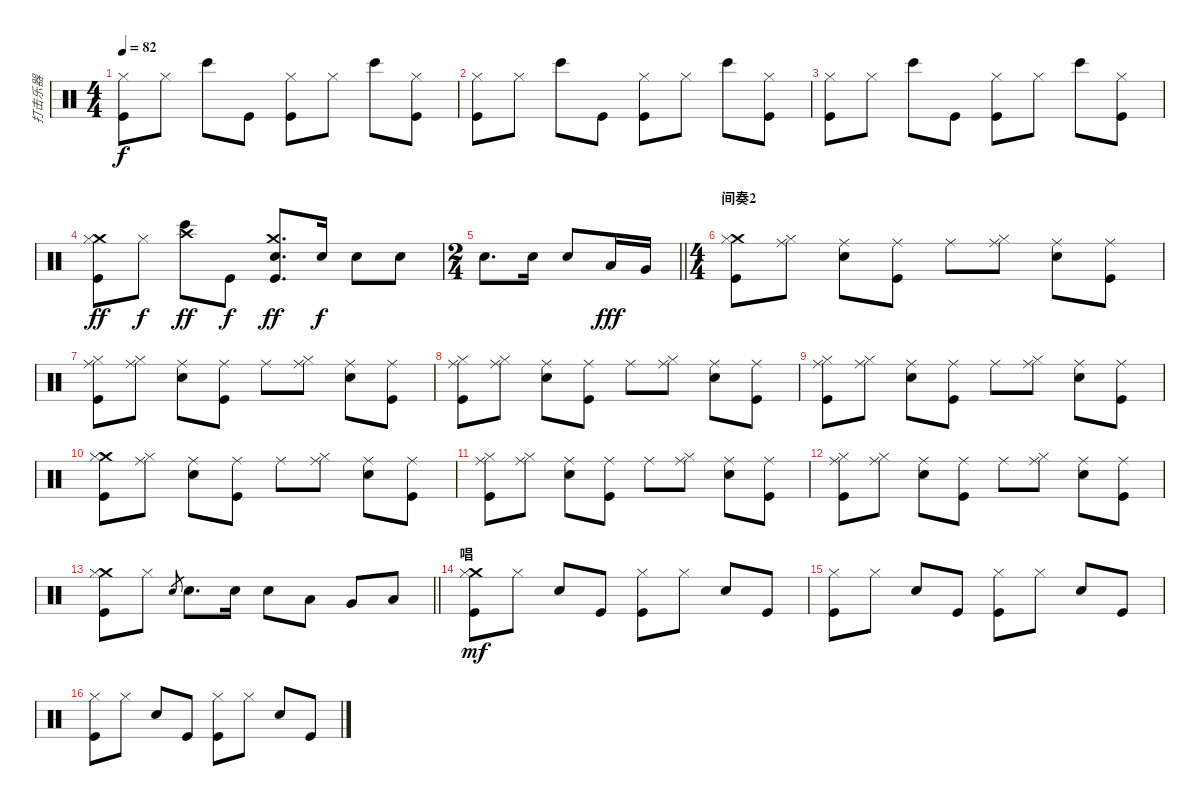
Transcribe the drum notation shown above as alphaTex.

\track ("打击乐器" "打击乐器") {instrument percussion}
\staff {score}
\articulation defaults
\ts (4 4)
\tempo 82
\clef neutral
\ks c
("Hi-Hat (closed)" "Kick (hit)").8{dy f} "Hi-Hat (closed)".8 "Bongo High (hit)".8 "Kick (hit)".8 ("Hi-Hat (closed)" "Kick (hit)").8 "Hi-Hat (closed)".8 "Bongo High (hit)".8 ("Hi-Hat (closed)" "Kick (hit)").8 |
("Hi-Hat (closed)" "Kick (hit)").8 "Hi-Hat (closed)".8 "Bongo High (hit)".8 "Kick (hit)".8 ("Hi-Hat (closed)" "Kick (hit)").8 "Hi-Hat (closed)".8 "Bongo High (hit)".8 ("Hi-Hat (closed)" "Kick (hit)").8 |
("Hi-Hat (closed)" "Kick (hit)").8 "Hi-Hat (closed)".8 "Bongo High (hit)".8 "Kick (hit)".8 ("Hi-Hat (closed)" "Kick (hit)").8 "Hi-Hat (closed)".8 "Bongo High (hit)".8 ("Hi-Hat (closed)" "Kick (hit)").8 |
("Crash medium (hit)" "Hi-Hat (closed)" "Kick (hit)").8{dy ff} "Hi-Hat (closed)".8{dy f} ("Crash high (hit)" "Bongo High (hit)").8{dy ff} "Kick (hit)".8{dy f} ("Crash medium (hit)" "Electric Snare (hit)" "Kick (hit)").8{d dy ff} "Electric Snare (hit)".16{dy f} "Electric Snare (hit)".8 "Electric Snare (hit)".8 |
\ts (2 4)
\barLineRight lightlight "Electric Snare (hit)".8{d} "Electric Snare (hit)".16 "Electric Snare (hit)".8 "Low Tom (hit)".16{dy fff} "Very Low Tom (hit)".16
|
\ts (4 4)
\section ("" "间奏2")
("Crash medium (hit)" "Hi-Hat (closed)" "Kick (hit)").8 ("Ride (middle)" "Hi-Hat (closed)").8 ("Ride (middle)" "Electric Snare (hit)").8 ("Ride (middle)" "Kick (hit)").8 "Ride (middle)".8 ("Ride (middle)" "Hi-Hat (closed)").8 ("Ride (middle)" "Electric Snare (hit)").8 ("Ride (middle)" "Kick (hit)").8 |
("Ride (middle)" "Hi-Hat (closed)" "Kick (hit)").8 ("Ride (middle)" "Hi-Hat (closed)").8 ("Ride (middle)" "Electric Snare (hit)").8 ("Ride (middle)" "Kick (hit)").8 "Ride (middle)".8 ("Ride (middle)" "Hi-Hat (closed)").8 ("Ride (middle)" "Electric Snare (hit)").8 ("Ride (middle)" "Kick (hit)").8 |
("Ride (middle)" "Hi-Hat (closed)" "Kick (hit)").8 ("Ride (middle)" "Hi-Hat (closed)").8 ("Ride (middle)" "Electric Snare (hit)").8 ("Ride (middle)" "Kick (hit)").8 "Ride (middle)".8 ("Ride (middle)" "Hi-Hat (closed)").8 ("Ride (middle)" "Electric Snare (hit)").8 ("Ride (middle)" "Kick (hit)").8 |
("Ride (middle)" "Hi-Hat (closed)" "Kick (hit)").8 ("Ride (middle)" "Hi-Hat (closed)").8 ("Ride (middle)" "Electric Snare (hit)").8 ("Ride (middle)" "Kick (hit)").8 "Ride (middle)".8 ("Ride (middle)" "Hi-Hat (closed)").8 ("Ride (middle)" "Electric Snare (hit)").8 ("Ride (middle)" "Kick (hit)").8 |
("Crash medium (hit)" "Hi-Hat (closed)" "Kick (hit)").8 ("Ride (middle)" "Hi-Hat (closed)").8 ("Ride (middle)" "Electric Snare (hit)").8 ("Ride (middle)" "Kick (hit)").8 "Ride (middle)".8 ("Ride (middle)" "Hi-Hat (closed)").8 ("Ride (middle)" "Electric Snare (hit)").8 ("Ride (middle)" "Kick (hit)").8 |
("Ride (middle)" "Hi-Hat (closed)" "Kick (hit)").8 ("Ride (middle)" "Hi-Hat (closed)").8 ("Ride (middle)" "Electric Snare (hit)").8 ("Ride (middle)" "Kick (hit)").8 "Ride (middle)".8 ("Ride (middle)" "Hi-Hat (closed)").8 ("Ride (middle)" "Electric Snare (hit)").8 ("Ride (middle)" "Kick (hit)").8 |
("Ride (middle)" "Hi-Hat (closed)" "Kick (hit)").8 ("Ride (middle)" "Hi-Hat (closed)").8 ("Ride (middle)" "Electric Snare (hit)").8 ("Ride (middle)" "Kick (hit)").8 "Ride (middle)".8 ("Ride (middle)" "Hi-Hat (closed)").8 ("Ride (middle)" "Electric Snare (hit)").8 ("Ride (middle)" "Kick (hit)").8 |
\barLineRight lightlight
("Crash medium (hit)" "Hi-Hat (closed)" "Kick (hit)").8 "Hi-Hat (closed)".8 "Electric Snare (hit)".8{gr} "Electric Snare (hit)".8{d} "Electric Snare (hit)".16 "Electric Snare (hit)".8 "Low Tom (hit)".8 "Very Low Tom (hit)".8 "Low Floor Tom (hit)".8 |
\section ("" "唱")
("Crash medium (hit)" "Hi-Hat (closed)" "Kick (hit)").8{dy mf} "Hi-Hat (closed)".8 "Electric Snare (hit)".8 "Kick (hit)".8 ("Hi-Hat (closed)" "Kick (hit)").8 "Hi-Hat (closed)".8 "Electric Snare (hit)".8 "Kick (hit)".8 |
("Hi-Hat (closed)" "Kick (hit)").8 "Hi-Hat (closed)".8 "Electric Snare (hit)".8 "Kick (hit)".8 ("Hi-Hat (closed)" "Kick (hit)").8 "Hi-Hat (closed)".8 "Electric Snare (hit)".8 "Kick (hit)".8 |
("Hi-Hat (closed)" "Kick (hit)").8 "Hi-Hat (closed)".8 "Electric Snare (hit)".8 "Kick (hit)".8 ("Hi-Hat (closed)" "Kick (hit)").8 "Hi-Hat (closed)".8 "Electric Snare (hit)".8 "Kick (hit)".8
